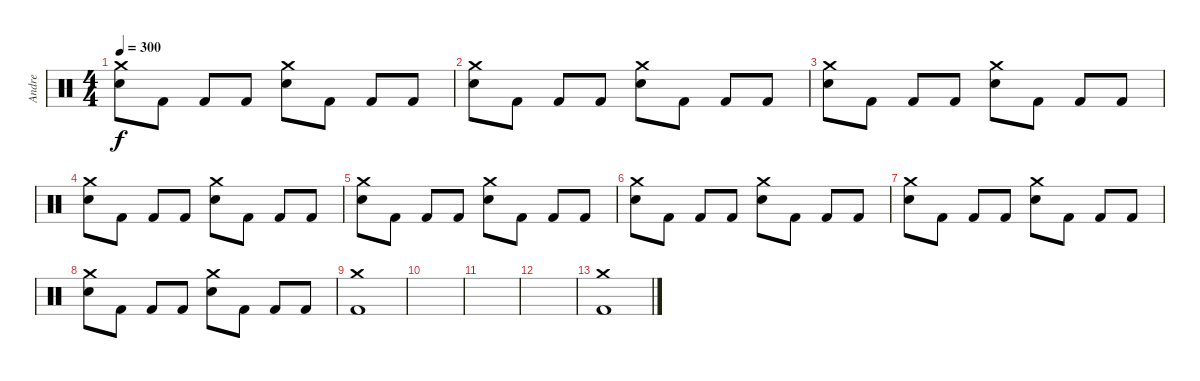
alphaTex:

\track ("Andre" "Andre") {instrument percussion}
\staff {score}
\articulation defaults
\ts (4 4)
\tempo 300
\clef neutral
\ks c
("Crash medium (hit)" "Electric Snare (hit)").8{dy f} "Kick (hit) 2".8 "Kick (hit) 2".8 "Kick (hit) 2".8 ("Crash medium (hit)" "Electric Snare (hit)").8 "Kick (hit) 2".8 "Kick (hit) 2".8 "Kick (hit) 2".8 |
("Crash medium (hit)" "Electric Snare (hit)").8 "Kick (hit) 2".8 "Kick (hit) 2".8 "Kick (hit) 2".8 ("Crash medium (hit)" "Electric Snare (hit)").8 "Kick (hit) 2".8 "Kick (hit) 2".8 "Kick (hit) 2".8 |
("Crash medium (hit)" "Electric Snare (hit)").8 "Kick (hit) 2".8 "Kick (hit) 2".8 "Kick (hit) 2".8 ("Crash medium (hit)" "Electric Snare (hit)").8 "Kick (hit) 2".8 "Kick (hit) 2".8 "Kick (hit) 2".8 |
("Crash medium (hit)" "Electric Snare (hit)").8 "Kick (hit) 2".8 "Kick (hit) 2".8 "Kick (hit) 2".8 ("Crash medium (hit)" "Electric Snare (hit)").8 "Kick (hit) 2".8 "Kick (hit) 2".8 "Kick (hit) 2".8 |
("Crash medium (hit)" "Electric Snare (hit)").8 "Kick (hit) 2".8 "Kick (hit) 2".8 "Kick (hit) 2".8 ("Crash medium (hit)" "Electric Snare (hit)").8 "Kick (hit) 2".8 "Kick (hit) 2".8 "Kick (hit) 2".8 |
("Crash medium (hit)" "Electric Snare (hit)").8 "Kick (hit) 2".8 "Kick (hit) 2".8 "Kick (hit) 2".8 ("Crash medium (hit)" "Electric Snare (hit)").8 "Kick (hit) 2".8 "Kick (hit) 2".8 "Kick (hit) 2".8 |
("Crash medium (hit)" "Electric Snare (hit)").8 "Kick (hit) 2".8 "Kick (hit) 2".8 "Kick (hit) 2".8 ("Crash medium (hit)" "Electric Snare (hit)").8 "Kick (hit) 2".8 "Kick (hit) 2".8 "Kick (hit) 2".8 |
("Crash medium (hit)" "Electric Snare (hit)").8 "Kick (hit) 2".8 "Kick (hit) 2".8 "Kick (hit) 2".8 ("Crash medium (hit)" "Electric Snare (hit)").8 "Kick (hit) 2".8 "Kick (hit) 2".8 "Kick (hit) 2".8 |
("Crash medium (hit)" "Kick (hit) 2").1 |
|
|
|
("Crash medium (hit)" "Kick (hit) 2").1
